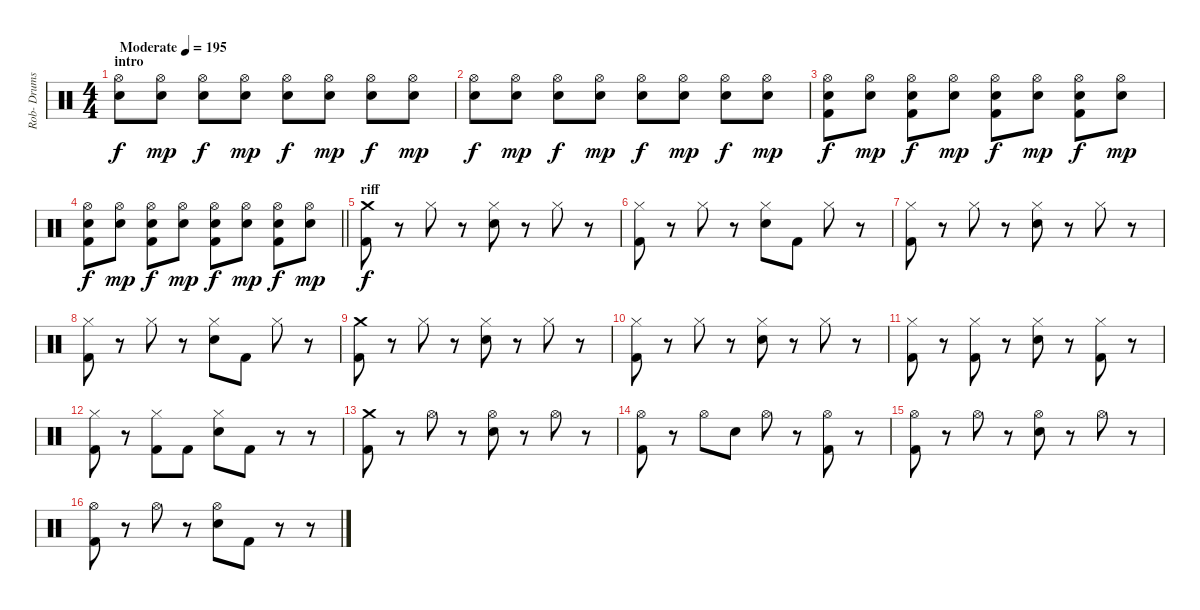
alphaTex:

\track ("Rob- Drums" "Rob- Drums") {instrument percussion}
\staff {score}
\articulation defaults
\ts (4 4)
\section ("" "intro")
\tempo (195 "Moderate")
\clef neutral
\ks c
("Hi-Hat (open)" "Electric Snare (hit)").8{dy f} ("Hi-Hat (open)" "Electric Snare (hit)").8{dy mp} ("Hi-Hat (open)" "Electric Snare (hit)").8{dy f} ("Hi-Hat (open)" "Electric Snare (hit)").8{dy mp} ("Hi-Hat (open)" "Electric Snare (hit)").8{dy f} ("Hi-Hat (open)" "Electric Snare (hit)").8{dy mp} ("Hi-Hat (open)" "Electric Snare (hit)").8{dy f} ("Hi-Hat (open)" "Electric Snare (hit)").8{dy mp} |
("Hi-Hat (open)" "Electric Snare (hit)").8{dy f} ("Hi-Hat (open)" "Electric Snare (hit)").8{dy mp} ("Hi-Hat (open)" "Electric Snare (hit)").8{dy f} ("Hi-Hat (open)" "Electric Snare (hit)").8{dy mp} ("Hi-Hat (open)" "Electric Snare (hit)").8{dy f} ("Hi-Hat (open)" "Electric Snare (hit)").8{dy mp} ("Hi-Hat (open)" "Electric Snare (hit)").8{dy f} ("Hi-Hat (open)" "Electric Snare (hit)").8{dy mp} |
("Hi-Hat (open)" "Electric Snare (hit)" "Kick (hit) 2").8{dy f} ("Hi-Hat (open)" "Electric Snare (hit)").8{dy mp} ("Hi-Hat (open)" "Electric Snare (hit)" "Kick (hit) 2").8{dy f} ("Hi-Hat (open)" "Electric Snare (hit)").8{dy mp} ("Hi-Hat (open)" "Electric Snare (hit)" "Kick (hit) 2").8{dy f} ("Hi-Hat (open)" "Electric Snare (hit)").8{dy mp} ("Hi-Hat (open)" "Electric Snare (hit)" "Kick (hit) 2").8{dy f} ("Hi-Hat (open)" "Electric Snare (hit)").8{dy mp} |
\barLineRight lightlight
("Hi-Hat (open)" "Electric Snare (hit)" "Kick (hit) 2").8{dy f} ("Hi-Hat (open)" "Electric Snare (hit)").8{dy mp} ("Hi-Hat (open)" "Electric Snare (hit)" "Kick (hit) 2").8{dy f} ("Hi-Hat (open)" "Electric Snare (hit)").8{dy mp} ("Hi-Hat (open)" "Electric Snare (hit)" "Kick (hit) 2").8{dy f} ("Hi-Hat (open)" "Electric Snare (hit)").8{dy mp} ("Hi-Hat (open)" "Electric Snare (hit)" "Kick (hit) 2").8{dy f} ("Hi-Hat (open)" "Electric Snare (hit)").8{dy mp} |
\section ("" "riff")
("Crash medium (hit)" "Kick (hit) 2").8{dy f} r.8 "Hi-Hat (closed)".8 r.8 ("Hi-Hat (closed)" "Electric Snare (hit)").8 r.8 "Hi-Hat (closed)".8 r.8 |
("Hi-Hat (closed)" "Kick (hit) 2").8 r.8 "Hi-Hat (closed)".8 r.8 ("Hi-Hat (closed)" "Electric Snare (hit)").8 "Kick (hit) 2".8 "Hi-Hat (closed)".8 r.8 |
("Hi-Hat (closed)" "Kick (hit) 2").8 r.8 "Hi-Hat (closed)".8 r.8 ("Hi-Hat (closed)" "Electric Snare (hit)").8 r.8 "Hi-Hat (closed)".8 r.8 |
("Hi-Hat (closed)" "Kick (hit) 2").8 r.8 "Hi-Hat (closed)".8 r.8 ("Hi-Hat (closed)" "Electric Snare (hit)").8 "Kick (hit) 2".8 "Hi-Hat (closed)".8 r.8 |
("Crash medium (hit)" "Kick (hit) 2").8 r.8 "Hi-Hat (closed)".8 r.8 ("Hi-Hat (closed)" "Electric Snare (hit)").8 r.8 "Hi-Hat (closed)".8 r.8 |
("Hi-Hat (closed)" "Kick (hit) 2").8 r.8 "Hi-Hat (closed)".8 r.8 ("Hi-Hat (closed)" "Electric Snare (hit)").8 r.8 "Hi-Hat (closed)".8 r.8 |
("Hi-Hat (closed)" "Kick (hit) 2").8 r.8 ("Hi-Hat (closed)" "Kick (hit) 2").8 r.8 ("Hi-Hat (closed)" "Electric Snare (hit)").8 r.8 ("Hi-Hat (closed)" "Kick (hit) 2").8 r.8 |
("Hi-Hat (closed)" "Kick (hit) 2").8 r.8 ("Hi-Hat (closed)" "Kick (hit) 2").8 "Kick (hit) 2".8 ("Hi-Hat (closed)" "Electric Snare (hit)").8 "Kick (hit) 2".8 r.8 r.8 |
("Crash medium (hit)" "Kick (hit) 2").8 r.8 "Hi-Hat (open)".8 r.8 ("Hi-Hat (open)" "Electric Snare (hit)").8 r.8 "Hi-Hat (open)".8 r.8 |
("Hi-Hat (open)" "Kick (hit) 2").8 r.8 "Hi-Hat (open)".8 "Electric Snare (hit)".8 "Hi-Hat (open)".8 r.8 ("Hi-Hat (open)" "Kick (hit) 2").8 r.8 |
("Hi-Hat (open)" "Kick (hit) 2").8 r.8 "Hi-Hat (open)".8 r.8 ("Hi-Hat (open)" "Electric Snare (hit)").8 r.8 "Hi-Hat (open)".8 r.8 |
("Hi-Hat (open)" "Kick (hit) 2").8 r.8 "Hi-Hat (open)".8 r.8 ("Hi-Hat (open)" "Electric Snare (hit)").8 "Kick (hit) 2".8 r.8 r.8
